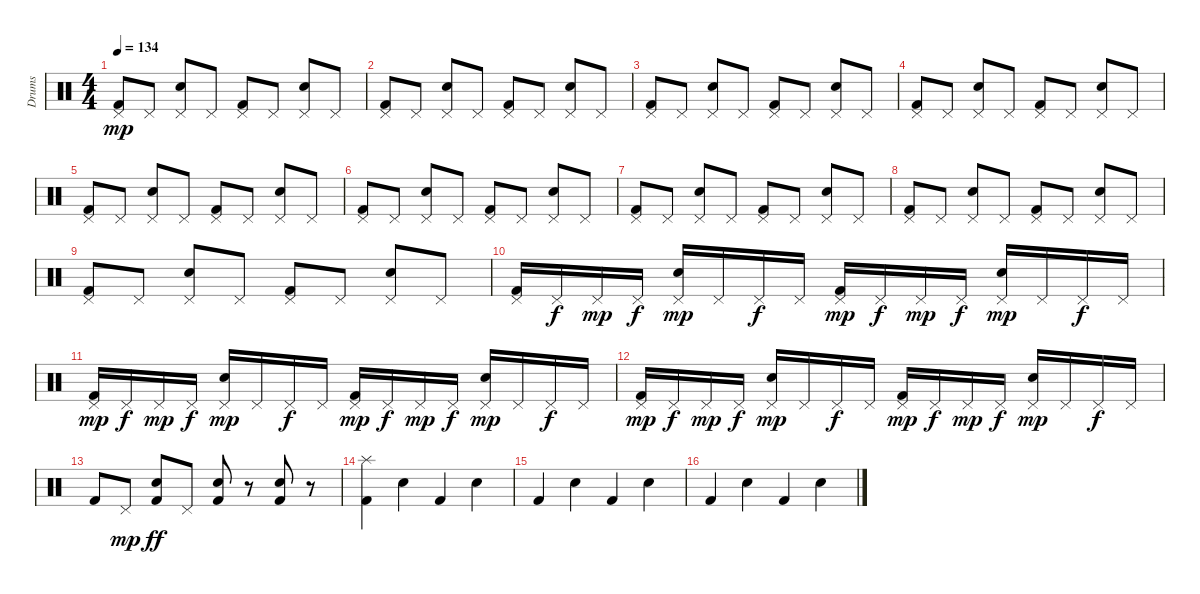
\track ("Drums" "Drums") {instrument percussion}
\staff {score}
\articulation defaults
\ts (4 4)
\tempo 134
\clef neutral
\ks c
("Pedal Hi-Hat (hit)" "Kick (hit) 2").8{dy mp} "Pedal Hi-Hat (hit)".8 ("Pedal Hi-Hat (hit)" "Electric Snare (hit)").8 "Pedal Hi-Hat (hit)".8 ("Pedal Hi-Hat (hit)" "Kick (hit) 2").8 "Pedal Hi-Hat (hit)".8 ("Pedal Hi-Hat (hit)" "Electric Snare (hit)").8 "Pedal Hi-Hat (hit)".8 |
("Pedal Hi-Hat (hit)" "Kick (hit) 2").8 "Pedal Hi-Hat (hit)".8 ("Pedal Hi-Hat (hit)" "Electric Snare (hit)").8 "Pedal Hi-Hat (hit)".8 ("Pedal Hi-Hat (hit)" "Kick (hit) 2").8 "Pedal Hi-Hat (hit)".8 ("Pedal Hi-Hat (hit)" "Electric Snare (hit)").8 "Pedal Hi-Hat (hit)".8 |
("Pedal Hi-Hat (hit)" "Kick (hit) 2").8 "Pedal Hi-Hat (hit)".8 ("Pedal Hi-Hat (hit)" "Electric Snare (hit)").8 "Pedal Hi-Hat (hit)".8 ("Pedal Hi-Hat (hit)" "Kick (hit) 2").8 "Pedal Hi-Hat (hit)".8 ("Pedal Hi-Hat (hit)" "Electric Snare (hit)").8 "Pedal Hi-Hat (hit)".8 |
("Pedal Hi-Hat (hit)" "Kick (hit) 2").8 "Pedal Hi-Hat (hit)".8 ("Pedal Hi-Hat (hit)" "Electric Snare (hit)").8 "Pedal Hi-Hat (hit)".8 ("Pedal Hi-Hat (hit)" "Kick (hit) 2").8 "Pedal Hi-Hat (hit)".8 ("Pedal Hi-Hat (hit)" "Electric Snare (hit)").8 "Pedal Hi-Hat (hit)".8 |
("Pedal Hi-Hat (hit)" "Kick (hit) 2").8 "Pedal Hi-Hat (hit)".8 ("Pedal Hi-Hat (hit)" "Electric Snare (hit)").8 "Pedal Hi-Hat (hit)".8 ("Pedal Hi-Hat (hit)" "Kick (hit) 2").8 "Pedal Hi-Hat (hit)".8 ("Pedal Hi-Hat (hit)" "Electric Snare (hit)").8 "Pedal Hi-Hat (hit)".8 |
("Pedal Hi-Hat (hit)" "Kick (hit) 2").8 "Pedal Hi-Hat (hit)".8 ("Pedal Hi-Hat (hit)" "Electric Snare (hit)").8 "Pedal Hi-Hat (hit)".8 ("Pedal Hi-Hat (hit)" "Kick (hit) 2").8 "Pedal Hi-Hat (hit)".8 ("Pedal Hi-Hat (hit)" "Electric Snare (hit)").8 "Pedal Hi-Hat (hit)".8 |
("Pedal Hi-Hat (hit)" "Kick (hit) 2").8 "Pedal Hi-Hat (hit)".8 ("Pedal Hi-Hat (hit)" "Electric Snare (hit)").8 "Pedal Hi-Hat (hit)".8 ("Pedal Hi-Hat (hit)" "Kick (hit) 2").8 "Pedal Hi-Hat (hit)".8 ("Pedal Hi-Hat (hit)" "Electric Snare (hit)").8 "Pedal Hi-Hat (hit)".8 |
("Pedal Hi-Hat (hit)" "Kick (hit) 2").8 "Pedal Hi-Hat (hit)".8 ("Pedal Hi-Hat (hit)" "Electric Snare (hit)").8 "Pedal Hi-Hat (hit)".8 ("Pedal Hi-Hat (hit)" "Kick (hit) 2").8 "Pedal Hi-Hat (hit)".8 ("Pedal Hi-Hat (hit)" "Electric Snare (hit)").8 "Pedal Hi-Hat (hit)".8 |
("Pedal Hi-Hat (hit)" "Kick (hit) 2").8 "Pedal Hi-Hat (hit)".8 ("Pedal Hi-Hat (hit)" "Electric Snare (hit)").8 "Pedal Hi-Hat (hit)".8 ("Pedal Hi-Hat (hit)" "Kick (hit) 2").8 "Pedal Hi-Hat (hit)".8 ("Pedal Hi-Hat (hit)" "Electric Snare (hit)").8 "Pedal Hi-Hat (hit)".8 |
("Pedal Hi-Hat (hit)" "Kick (hit) 2").16 "Pedal Hi-Hat (hit)".16{dy f} "Pedal Hi-Hat (hit)".16{dy mp} "Pedal Hi-Hat (hit)".16{dy f} ("Pedal Hi-Hat (hit)" "Electric Snare (hit)").16{dy mp} "Pedal Hi-Hat (hit)".16 "Pedal Hi-Hat (hit)".16{dy f} "Pedal Hi-Hat (hit)".16 ("Pedal Hi-Hat (hit)" "Kick (hit) 2").16{dy mp} "Pedal Hi-Hat (hit)".16{dy f} "Pedal Hi-Hat (hit)".16{dy mp} "Pedal Hi-Hat (hit)".16{dy f} ("Pedal Hi-Hat (hit)" "Electric Snare (hit)").16{dy mp} "Pedal Hi-Hat (hit)".16 "Pedal Hi-Hat (hit)".16{dy f} "Pedal Hi-Hat (hit)".16 |
("Pedal Hi-Hat (hit)" "Kick (hit) 2").16{dy mp} "Pedal Hi-Hat (hit)".16{dy f} "Pedal Hi-Hat (hit)".16{dy mp} "Pedal Hi-Hat (hit)".16{dy f} ("Pedal Hi-Hat (hit)" "Electric Snare (hit)").16{dy mp} "Pedal Hi-Hat (hit)".16 "Pedal Hi-Hat (hit)".16{dy f} "Pedal Hi-Hat (hit)".16 ("Pedal Hi-Hat (hit)" "Kick (hit) 2").16{dy mp} "Pedal Hi-Hat (hit)".16{dy f} "Pedal Hi-Hat (hit)".16{dy mp} "Pedal Hi-Hat (hit)".16{dy f} ("Pedal Hi-Hat (hit)" "Electric Snare (hit)").16{dy mp} "Pedal Hi-Hat (hit)".16 "Pedal Hi-Hat (hit)".16{dy f} "Pedal Hi-Hat (hit)".16 |
("Pedal Hi-Hat (hit)" "Kick (hit) 2").16{dy mp} "Pedal Hi-Hat (hit)".16{dy f} "Pedal Hi-Hat (hit)".16{dy mp} "Pedal Hi-Hat (hit)".16{dy f} ("Pedal Hi-Hat (hit)" "Electric Snare (hit)").16{dy mp} "Pedal Hi-Hat (hit)".16 "Pedal Hi-Hat (hit)".16{dy f} "Pedal Hi-Hat (hit)".16 ("Pedal Hi-Hat (hit)" "Kick (hit) 2").16{dy mp} "Pedal Hi-Hat (hit)".16{dy f} "Pedal Hi-Hat (hit)".16{dy mp} "Pedal Hi-Hat (hit)".16{dy f} ("Pedal Hi-Hat (hit)" "Electric Snare (hit)").16{dy mp} "Pedal Hi-Hat (hit)".16 "Pedal Hi-Hat (hit)".16{dy f} "Pedal Hi-Hat (hit)".16 |
"Kick (hit) 2".8 "Pedal Hi-Hat (hit)".8{dy mp} ("Electric Snare (hit)" "Kick (hit) 2").8{dy ff} "Pedal Hi-Hat (hit)".8 ("Electric Snare (hit)" "Kick (hit) 2").8 r.8 ("Electric Snare (hit)" "Kick (hit) 2").8 r.8 |
("Splash (hit)" "Kick (hit) 2").4 "Electric Snare (hit)".4 "Kick (hit) 2".4 "Electric Snare (hit)".4 |
"Kick (hit) 2".4 "Electric Snare (hit)".4 "Kick (hit) 2".4 "Electric Snare (hit)".4 |
"Kick (hit) 2".4 "Electric Snare (hit)".4 "Kick (hit) 2".4 "Electric Snare (hit)".4
